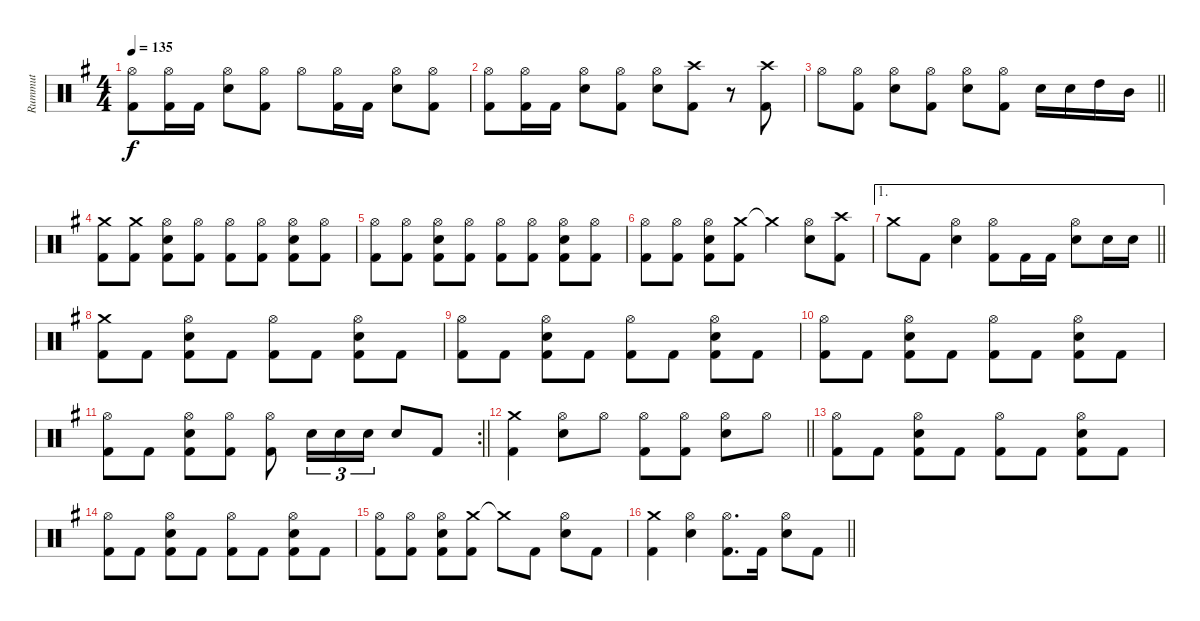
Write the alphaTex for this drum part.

\track ("Rummut" "Rummut") {instrument percussion}
\staff {score}
\articulation defaults
\ts (4 4)
\tempo 135
\clef neutral
\ks g
("Hi-Hat (open)" "Kick (hit) 2").8{dy f} ("Hi-Hat (open)" "Kick (hit) 2").16 "Kick (hit) 2".16 ("Hi-Hat (open)" "Snare (hit) 2").8 ("Hi-Hat (open)" "Kick (hit) 2").8 "Hi-Hat (open)".8 ("Hi-Hat (open)" "Kick (hit) 2").16 "Kick (hit) 2".16 ("Hi-Hat (open)" "Snare (hit) 2").8 ("Hi-Hat (open)" "Kick (hit) 2").8 |
("Hi-Hat (open)" "Kick (hit) 2").8 ("Hi-Hat (open)" "Kick (hit) 2").16 "Kick (hit) 2".16 ("Hi-Hat (open)" "Snare (hit) 2").8 ("Hi-Hat (open)" "Kick (hit) 2").8 ("Hi-Hat (open)" "Snare (hit) 2").8 ("Crash high (hit)" "Kick (hit) 2").8 r.8 ("Crash high (hit)" "Kick (hit) 2").8 |
\barLineRight lightlight "Hi-Hat (open)".8
("Hi-Hat (open)" "Kick (hit) 2").8 ("Hi-Hat (open)" "Snare (hit) 2").8 ("Hi-Hat (open)" "Kick (hit) 2").8 ("Hi-Hat (open)" "Snare (hit) 2").8 ("Hi-Hat (open)" "Kick (hit) 2").8 "Snare (hit) 2".16 "Snare (hit) 2".16 "High Tom (hit)".16 "Mid Tom (hit)".16 |
("Crash medium (hit)" "Kick (hit) 2").8 ("Crash medium (hit)" "Kick (hit) 2").8 ("Hi-Hat (open)" "Snare (hit) 2" "Kick (hit) 2").8 ("Hi-Hat (open)" "Kick (hit) 2").8 ("Hi-Hat (open)" "Kick (hit) 2").8 ("Hi-Hat (open)" "Kick (hit) 2").8 ("Hi-Hat (open)" "Snare (hit) 2" "Kick (hit) 2").8 ("Hi-Hat (open)" "Kick (hit) 2").8 |
("Hi-Hat (open)" "Kick (hit) 2").8 ("Hi-Hat (open)" "Kick (hit) 2").8 ("Hi-Hat (open)" "Snare (hit) 2" "Kick (hit) 2").8 ("Hi-Hat (open)" "Kick (hit) 2").8 ("Hi-Hat (open)" "Kick (hit) 2").8 ("Hi-Hat (open)" "Kick (hit) 2").8 ("Hi-Hat (open)" "Snare (hit) 2" "Kick (hit) 2").8 ("Hi-Hat (open)" "Kick (hit) 2").8 |
("Hi-Hat (open)" "Kick (hit) 2").8 ("Hi-Hat (open)" "Kick (hit) 2").8 ("Hi-Hat (open)" "Snare (hit) 2" "Kick (hit) 2").8 ("Crash medium (hit)" "Kick (hit) 2").8 "Crash medium (hit)"{t}.4 ("Hi-Hat (open)" "Snare (hit) 2").8 ("Crash high (hit)" "Kick (hit) 2").8 |
\ae 1
\barLineRight lightlight "Crash medium (hit)".8 "Kick (hit) 2".8
("Hi-Hat (open)" "Snare (hit) 2").4 ("Hi-Hat (open)" "Kick (hit) 2").8 "Kick (hit) 2".16 "Kick (hit) 2".16 ("Hi-Hat (open)" "Snare (hit) 2").8 "Snare (hit) 2".16 "Snare (hit) 2".16 |
("Crash medium (hit)" "Kick (hit) 2").8 "Kick (hit) 2".8 ("Hi-Hat (open)" "Snare (hit) 2" "Kick (hit) 2").8 "Kick (hit) 2".8 ("Hi-Hat (open)" "Kick (hit) 2").8 "Kick (hit) 2".8 ("Hi-Hat (open)" "Snare (hit) 2" "Kick (hit) 2").8 "Kick (hit) 2".8 |
("Hi-Hat (open)" "Kick (hit) 2").8 "Kick (hit) 2".8 ("Hi-Hat (open)" "Snare (hit) 2" "Kick (hit) 2").8 "Kick (hit) 2".8 ("Hi-Hat (open)" "Kick (hit) 2").8 "Kick (hit) 2".8 ("Hi-Hat (open)" "Snare (hit) 2" "Kick (hit) 2").8 "Kick (hit) 2".8 |
("Hi-Hat (open)" "Kick (hit) 2").8 "Kick (hit) 2".8 ("Hi-Hat (open)" "Snare (hit) 2" "Kick (hit) 2").8 "Kick (hit) 2".8 ("Hi-Hat (open)" "Kick (hit) 2").8 "Kick (hit) 2".8 ("Hi-Hat (open)" "Snare (hit) 2" "Kick (hit) 2").8 "Kick (hit) 2".8 |
\rc 2
\barLineRight lightlight
("Hi-Hat (open)" "Kick (hit) 2").8 "Kick (hit) 2".8 ("Hi-Hat (open)" "Snare (hit) 2" "Kick (hit) 2").8 ("Hi-Hat (open)" "Kick (hit) 2").8 ("Hi-Hat (open)" "Kick (hit) 2").8 "Snare (hit) 2".16{tu (3 2)} "Snare (hit) 2".16{tu (3 2)} "Snare (hit) 2".16{tu (3 2)} "Snare (hit) 2".8 "Kick (hit) 2".8 |
\barLineRight lightlight
("Crash medium (hit)" "Kick (hit) 2").4 ("Hi-Hat (open)" "Snare (hit) 2").8 "Hi-Hat (open)".8 ("Hi-Hat (open)" "Kick (hit) 2").8 ("Hi-Hat (open)" "Kick (hit) 2").8 ("Hi-Hat (open)" "Snare (hit) 2").8 "Hi-Hat (open)".8 |
("Hi-Hat (open)" "Kick (hit) 2").8 "Kick (hit) 2".8 ("Hi-Hat (open)" "Snare (hit) 2" "Kick (hit) 2").8 "Kick (hit) 2".8 ("Hi-Hat (open)" "Kick (hit) 2").8 "Kick (hit) 2".8 ("Hi-Hat (open)" "Snare (hit) 2" "Kick (hit) 2").8 "Kick (hit) 2".8 |
("Hi-Hat (open)" "Kick (hit) 2").8 "Kick (hit) 2".8 ("Hi-Hat (open)" "Snare (hit) 2" "Kick (hit) 2").8 "Kick (hit) 2".8 ("Hi-Hat (open)" "Kick (hit) 2").8 "Kick (hit) 2".8 ("Hi-Hat (open)" "Snare (hit) 2" "Kick (hit) 2").8 "Kick (hit) 2".8 |
("Hi-Hat (open)" "Kick (hit) 2").8 ("Hi-Hat (open)" "Kick (hit) 2").8 ("Hi-Hat (open)" "Snare (hit) 2" "Kick (hit) 2").8 ("Crash medium (hit)" "Kick (hit) 2").8 "Crash medium (hit)"{t}.8 "Kick (hit) 2".8 ("Hi-Hat (open)" "Snare (hit) 2").8 "Kick (hit) 2".8 |
\barLineRight lightlight
("Crash medium (hit)" "Kick (hit) 2").4 ("Hi-Hat (open)" "Snare (hit) 2").4 ("Hi-Hat (open)" "Kick (hit) 2").8{d} "Kick (hit) 2".16 ("Hi-Hat (open)" "Snare (hit) 2").8 "Kick (hit) 2".8
